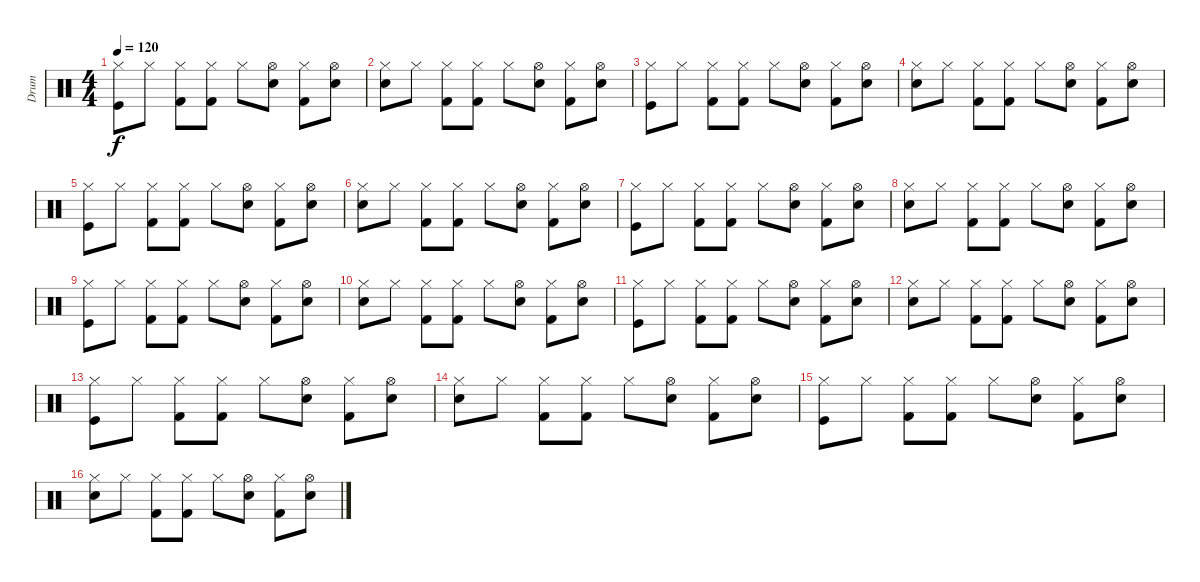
\track ("Drum" "Drum") {instrument percussion}
\staff {score}
\articulation defaults
\ts (4 4)
\tempo 120
\clef neutral
\ks c
("Hi-Hat (closed)" "Kick (hit)").8{dy f} "Hi-Hat (closed)".8 ("Hi-Hat (closed)" "Kick (hit) 2").8 ("Hi-Hat (closed)" "Kick (hit) 2").8 "Hi-Hat (closed)".8 ("Hi-Hat (open)" "Snare (hit) 2").8 ("Hi-Hat (closed)" "Kick (hit) 2").8 ("Hi-Hat (open)" "Snare (hit) 2").8 |
("Hi-Hat (closed)" "Snare (hit) 2").8 "Hi-Hat (closed)".8 ("Hi-Hat (closed)" "Kick (hit) 2").8 ("Hi-Hat (closed)" "Kick (hit) 2").8 "Hi-Hat (closed)".8 ("Hi-Hat (open)" "Snare (hit) 2").8 ("Hi-Hat (closed)" "Kick (hit) 2").8 ("Hi-Hat (open)" "Snare (hit) 2").8 |
("Hi-Hat (closed)" "Kick (hit)").8 "Hi-Hat (closed)".8 ("Hi-Hat (closed)" "Kick (hit) 2").8 ("Hi-Hat (closed)" "Kick (hit) 2").8 "Hi-Hat (closed)".8 ("Hi-Hat (open)" "Snare (hit) 2").8 ("Hi-Hat (closed)" "Kick (hit) 2").8 ("Hi-Hat (open)" "Snare (hit) 2").8 |
("Hi-Hat (closed)" "Snare (hit) 2").8 "Hi-Hat (closed)".8 ("Hi-Hat (closed)" "Kick (hit) 2").8 ("Hi-Hat (closed)" "Kick (hit) 2").8 "Hi-Hat (closed)".8 ("Hi-Hat (open)" "Snare (hit) 2").8 ("Hi-Hat (closed)" "Kick (hit) 2").8 ("Hi-Hat (open)" "Snare (hit) 2").8 |
("Hi-Hat (closed)" "Kick (hit)").8 "Hi-Hat (closed)".8 ("Hi-Hat (closed)" "Kick (hit) 2").8 ("Hi-Hat (closed)" "Kick (hit) 2").8 "Hi-Hat (closed)".8 ("Hi-Hat (open)" "Snare (hit) 2").8 ("Hi-Hat (closed)" "Kick (hit) 2").8 ("Hi-Hat (open)" "Snare (hit) 2").8 |
("Hi-Hat (closed)" "Snare (hit) 2").8 "Hi-Hat (closed)".8 ("Hi-Hat (closed)" "Kick (hit) 2").8 ("Hi-Hat (closed)" "Kick (hit) 2").8 "Hi-Hat (closed)".8 ("Hi-Hat (open)" "Snare (hit) 2").8 ("Hi-Hat (closed)" "Kick (hit) 2").8 ("Hi-Hat (open)" "Snare (hit) 2").8 |
("Hi-Hat (closed)" "Kick (hit)").8 "Hi-Hat (closed)".8 ("Hi-Hat (closed)" "Kick (hit) 2").8 ("Hi-Hat (closed)" "Kick (hit) 2").8 "Hi-Hat (closed)".8 ("Hi-Hat (open)" "Snare (hit) 2").8 ("Hi-Hat (closed)" "Kick (hit) 2").8 ("Hi-Hat (open)" "Snare (hit) 2").8 |
("Hi-Hat (closed)" "Snare (hit) 2").8 "Hi-Hat (closed)".8 ("Hi-Hat (closed)" "Kick (hit) 2").8 ("Hi-Hat (closed)" "Kick (hit) 2").8 "Hi-Hat (closed)".8 ("Hi-Hat (open)" "Snare (hit) 2").8 ("Hi-Hat (closed)" "Kick (hit) 2").8 ("Hi-Hat (open)" "Snare (hit) 2").8 |
("Hi-Hat (closed)" "Kick (hit)").8 "Hi-Hat (closed)".8 ("Hi-Hat (closed)" "Kick (hit) 2").8 ("Hi-Hat (closed)" "Kick (hit) 2").8 "Hi-Hat (closed)".8 ("Hi-Hat (open)" "Snare (hit) 2").8 ("Hi-Hat (closed)" "Kick (hit) 2").8 ("Hi-Hat (open)" "Snare (hit) 2").8 |
("Hi-Hat (closed)" "Snare (hit) 2").8 "Hi-Hat (closed)".8 ("Hi-Hat (closed)" "Kick (hit) 2").8 ("Hi-Hat (closed)" "Kick (hit) 2").8 "Hi-Hat (closed)".8 ("Hi-Hat (open)" "Snare (hit) 2").8 ("Hi-Hat (closed)" "Kick (hit) 2").8 ("Hi-Hat (open)" "Snare (hit) 2").8 |
("Hi-Hat (closed)" "Kick (hit)").8 "Hi-Hat (closed)".8 ("Hi-Hat (closed)" "Kick (hit) 2").8 ("Hi-Hat (closed)" "Kick (hit) 2").8 "Hi-Hat (closed)".8 ("Hi-Hat (open)" "Snare (hit) 2").8 ("Hi-Hat (closed)" "Kick (hit) 2").8 ("Hi-Hat (open)" "Snare (hit) 2").8 |
("Hi-Hat (closed)" "Snare (hit) 2").8 "Hi-Hat (closed)".8 ("Hi-Hat (closed)" "Kick (hit) 2").8 ("Hi-Hat (closed)" "Kick (hit) 2").8 "Hi-Hat (closed)".8 ("Hi-Hat (open)" "Snare (hit) 2").8 ("Hi-Hat (closed)" "Kick (hit) 2").8 ("Hi-Hat (open)" "Snare (hit) 2").8 |
("Hi-Hat (closed)" "Kick (hit)").8 "Hi-Hat (closed)".8 ("Hi-Hat (closed)" "Kick (hit) 2").8 ("Hi-Hat (closed)" "Kick (hit) 2").8 "Hi-Hat (closed)".8 ("Hi-Hat (open)" "Snare (hit) 2").8 ("Hi-Hat (closed)" "Kick (hit) 2").8 ("Hi-Hat (open)" "Snare (hit) 2").8 |
("Hi-Hat (closed)" "Snare (hit) 2").8 "Hi-Hat (closed)".8 ("Hi-Hat (closed)" "Kick (hit) 2").8 ("Hi-Hat (closed)" "Kick (hit) 2").8 "Hi-Hat (closed)".8 ("Hi-Hat (open)" "Snare (hit) 2").8 ("Hi-Hat (closed)" "Kick (hit) 2").8 ("Hi-Hat (open)" "Snare (hit) 2").8 |
("Hi-Hat (closed)" "Kick (hit)").8 "Hi-Hat (closed)".8 ("Hi-Hat (closed)" "Kick (hit) 2").8 ("Hi-Hat (closed)" "Kick (hit) 2").8 "Hi-Hat (closed)".8 ("Hi-Hat (open)" "Snare (hit) 2").8 ("Hi-Hat (closed)" "Kick (hit) 2").8 ("Hi-Hat (open)" "Snare (hit) 2").8 |
("Hi-Hat (closed)" "Snare (hit) 2").8 "Hi-Hat (closed)".8 ("Hi-Hat (closed)" "Kick (hit) 2").8 ("Hi-Hat (closed)" "Kick (hit) 2").8 "Hi-Hat (closed)".8 ("Hi-Hat (open)" "Snare (hit) 2").8 ("Hi-Hat (closed)" "Kick (hit) 2").8 ("Hi-Hat (open)" "Snare (hit) 2").8
